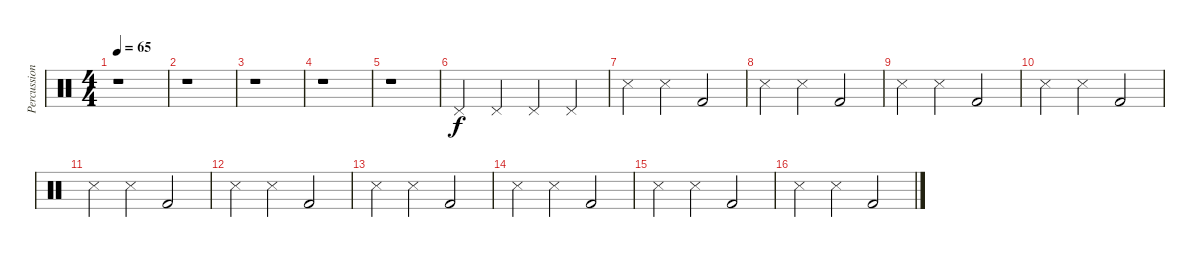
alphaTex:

\track ("Percussion" "Percussion") {instrument percussion}
\staff {score}
\articulation defaults
\ts (4 4)
\tempo 65
\clef neutral
\ks c
r.1{dy f} |
r.1 |
r.1 |
r.1 |
r.1 |
"Pedal Hi-Hat (hit)".4 "Pedal Hi-Hat (hit)".4 "Pedal Hi-Hat (hit)".4 "Pedal Hi-Hat (hit)".4 |
"Snare (side stick) 3".4 "Snare (side stick) 3".4 "Kick (hit) 2".2 |
"Snare (side stick) 3".4 "Snare (side stick) 3".4 "Kick (hit) 2".2 |
"Snare (side stick) 3".4 "Snare (side stick) 3".4 "Kick (hit) 2".2 |
"Snare (side stick) 3".4 "Snare (side stick) 3".4 "Kick (hit) 2".2 |
"Snare (side stick) 3".4 "Snare (side stick) 3".4 "Kick (hit) 2".2 |
"Snare (side stick) 3".4 "Snare (side stick) 3".4 "Kick (hit) 2".2 |
"Snare (side stick) 3".4 "Snare (side stick) 3".4 "Kick (hit) 2".2 |
"Snare (side stick) 3".4 "Snare (side stick) 3".4 "Kick (hit) 2".2 |
"Snare (side stick) 3".4 "Snare (side stick) 3".4 "Kick (hit) 2".2 |
"Snare (side stick) 3".4 "Snare (side stick) 3".4 "Kick (hit) 2".2
